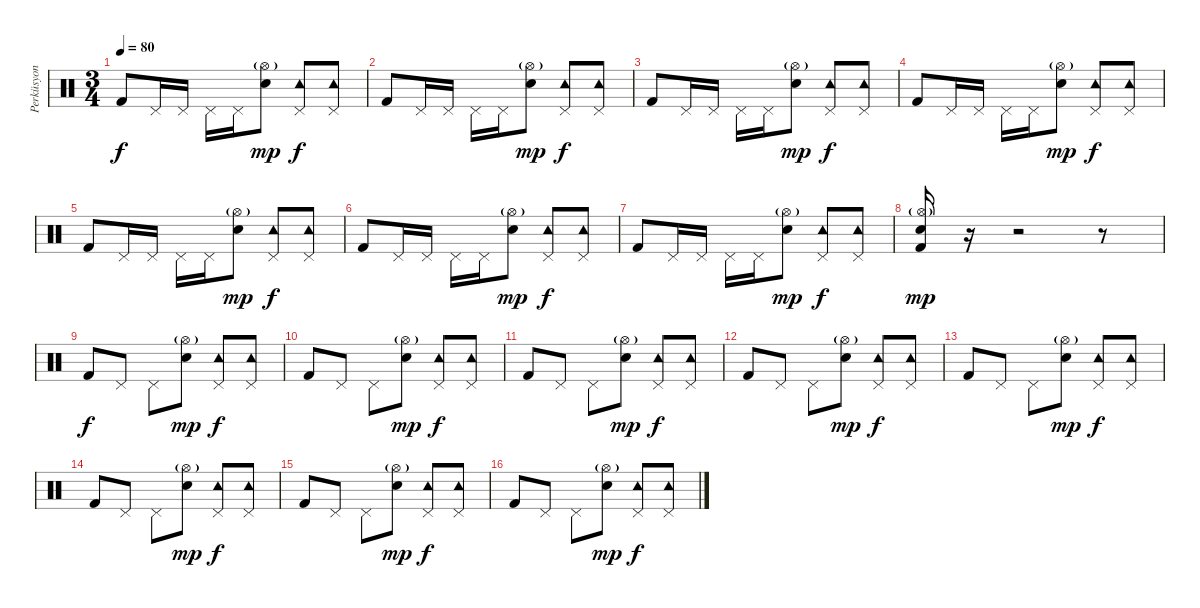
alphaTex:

\track ("Perküsyon" "Perküsyon") {instrument percussion}
\staff {score}
\articulation defaults
\ts (3 4)
\tempo 80
\clef neutral
\ks c "Kick (hit) 2".8{dy f} "Pedal Hi-Hat (hit)".16 "Pedal Hi-Hat (hit)".16 "Pedal Hi-Hat (hit)".16 "Pedal Hi-Hat (hit)".16
("Hi-Hat (open)"{g} "Snare (hit) 2").8{dy mp} ("Tambourine (hit)" "Pedal Hi-Hat (hit)").8{dy f} ("Tambourine (hit)" "Pedal Hi-Hat (hit)").8 |
"Kick (hit) 2".8 "Pedal Hi-Hat (hit)".16 "Pedal Hi-Hat (hit)".16 "Pedal Hi-Hat (hit)".16 "Pedal Hi-Hat (hit)".16 ("Hi-Hat (open)"{g} "Snare (hit) 2").8{dy mp} ("Tambourine (hit)" "Pedal Hi-Hat (hit)").8{dy f} ("Tambourine (hit)" "Pedal Hi-Hat (hit)").8 |
"Kick (hit) 2".8 "Pedal Hi-Hat (hit)".16 "Pedal Hi-Hat (hit)".16 "Pedal Hi-Hat (hit)".16 "Pedal Hi-Hat (hit)".16 ("Hi-Hat (open)"{g} "Snare (hit) 2").8{dy mp} ("Tambourine (hit)" "Pedal Hi-Hat (hit)").8{dy f} ("Tambourine (hit)" "Pedal Hi-Hat (hit)").8 |
"Kick (hit) 2".8 "Pedal Hi-Hat (hit)".16 "Pedal Hi-Hat (hit)".16 "Pedal Hi-Hat (hit)".16 "Pedal Hi-Hat (hit)".16 ("Hi-Hat (open)"{g} "Snare (hit) 2").8{dy mp} ("Tambourine (hit)" "Pedal Hi-Hat (hit)").8{dy f} ("Tambourine (hit)" "Pedal Hi-Hat (hit)").8 |
"Kick (hit) 2".8 "Pedal Hi-Hat (hit)".16 "Pedal Hi-Hat (hit)".16 "Pedal Hi-Hat (hit)".16 "Pedal Hi-Hat (hit)".16 ("Hi-Hat (open)"{g} "Snare (hit) 2").8{dy mp} ("Tambourine (hit)" "Pedal Hi-Hat (hit)").8{dy f} ("Tambourine (hit)" "Pedal Hi-Hat (hit)").8 |
"Kick (hit) 2".8 "Pedal Hi-Hat (hit)".16 "Pedal Hi-Hat (hit)".16 "Pedal Hi-Hat (hit)".16 "Pedal Hi-Hat (hit)".16 ("Hi-Hat (open)"{g} "Snare (hit) 2").8{dy mp} ("Tambourine (hit)" "Pedal Hi-Hat (hit)").8{dy f} ("Tambourine (hit)" "Pedal Hi-Hat (hit)").8 |
"Kick (hit) 2".8 "Pedal Hi-Hat (hit)".16 "Pedal Hi-Hat (hit)".16 "Pedal Hi-Hat (hit)".16 "Pedal Hi-Hat (hit)".16 ("Hi-Hat (open)"{g} "Snare (hit) 2").8{dy mp} ("Tambourine (hit)" "Pedal Hi-Hat (hit)").8{dy f} ("Tambourine (hit)" "Pedal Hi-Hat (hit)").8 |
("Hi-Hat (open)"{g} "Snare (hit) 2" "Kick (hit) 2").16{dy mp} r.16 r.2 r.8 |
"Kick (hit) 2".8{dy f} "Pedal Hi-Hat (hit)".8 "Pedal Hi-Hat (hit)".8 ("Hi-Hat (open)"{g} "Snare (hit) 2").8{dy mp} ("Tambourine (hit)" "Pedal Hi-Hat (hit)").8{dy f} ("Tambourine (hit)" "Pedal Hi-Hat (hit)").8 |
"Kick (hit) 2".8 "Pedal Hi-Hat (hit)".8 "Pedal Hi-Hat (hit)".8 ("Hi-Hat (open)"{g} "Snare (hit) 2").8{dy mp} ("Tambourine (hit)" "Pedal Hi-Hat (hit)").8{dy f} ("Tambourine (hit)" "Pedal Hi-Hat (hit)").8 |
"Kick (hit) 2".8 "Pedal Hi-Hat (hit)".8 "Pedal Hi-Hat (hit)".8 ("Hi-Hat (open)"{g} "Snare (hit) 2").8{dy mp} ("Tambourine (hit)" "Pedal Hi-Hat (hit)").8{dy f} ("Tambourine (hit)" "Pedal Hi-Hat (hit)").8 |
"Kick (hit) 2".8 "Pedal Hi-Hat (hit)".8 "Pedal Hi-Hat (hit)".8 ("Hi-Hat (open)"{g} "Snare (hit) 2").8{dy mp} ("Tambourine (hit)" "Pedal Hi-Hat (hit)").8{dy f} ("Tambourine (hit)" "Pedal Hi-Hat (hit)").8 |
"Kick (hit) 2".8 "Pedal Hi-Hat (hit)".8 "Pedal Hi-Hat (hit)".8 ("Hi-Hat (open)"{g} "Snare (hit) 2").8{dy mp} ("Tambourine (hit)" "Pedal Hi-Hat (hit)").8{dy f} ("Tambourine (hit)" "Pedal Hi-Hat (hit)").8 |
"Kick (hit) 2".8 "Pedal Hi-Hat (hit)".8 "Pedal Hi-Hat (hit)".8 ("Hi-Hat (open)"{g} "Snare (hit) 2").8{dy mp} ("Tambourine (hit)" "Pedal Hi-Hat (hit)").8{dy f} ("Tambourine (hit)" "Pedal Hi-Hat (hit)").8 |
"Kick (hit) 2".8 "Pedal Hi-Hat (hit)".8 "Pedal Hi-Hat (hit)".8 ("Hi-Hat (open)"{g} "Snare (hit) 2").8{dy mp} ("Tambourine (hit)" "Pedal Hi-Hat (hit)").8{dy f} ("Tambourine (hit)" "Pedal Hi-Hat (hit)").8 |
"Kick (hit) 2".8 "Pedal Hi-Hat (hit)".8 "Pedal Hi-Hat (hit)".8 ("Hi-Hat (open)"{g} "Snare (hit) 2").8{dy mp} ("Tambourine (hit)" "Pedal Hi-Hat (hit)").8{dy f} ("Tambourine (hit)" "Pedal Hi-Hat (hit)").8
